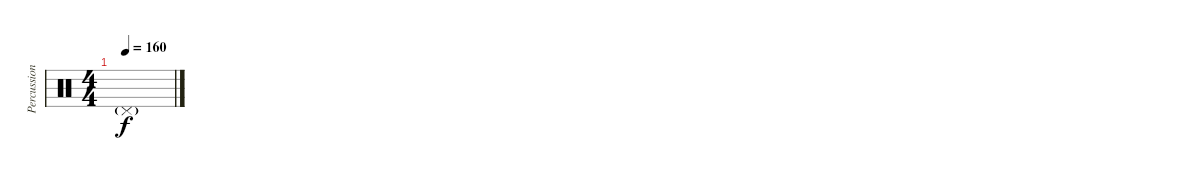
\track ("Percussion" "Percussion") {instrument percussion}
\staff {score}
\articulation defaults
\ts (4 4)
\tempo 160
\clef neutral
\ks c "Pedal Hi-Hat (hit)"{g}.1{dy f}
